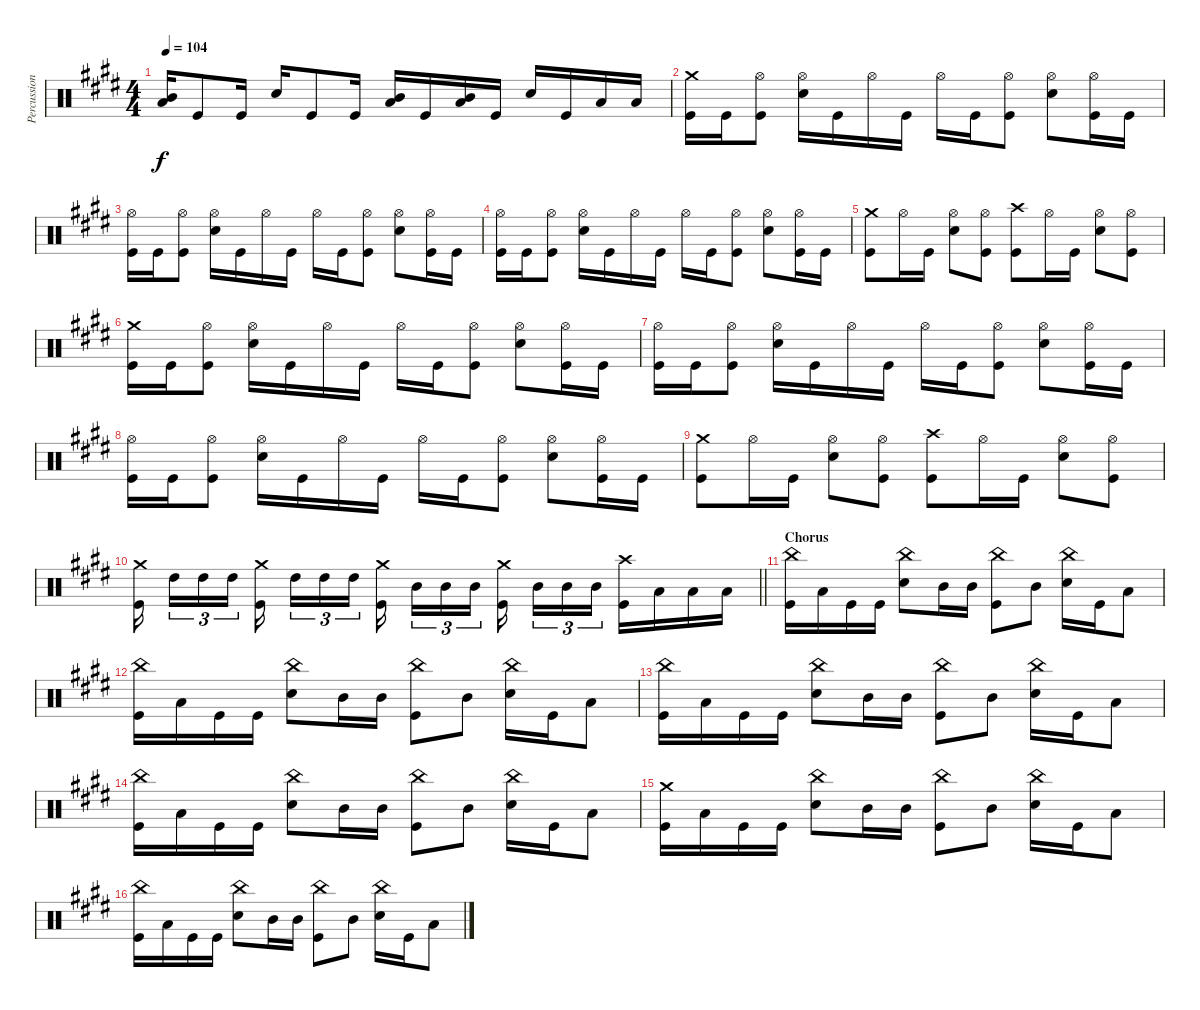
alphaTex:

\track ("Percussion" "Percussion") {instrument percussion}
\staff {score}
\articulation defaults
\ts (4 4)
\tempo 104
\clef neutral
\ks e
("Mid Tom (hit)" "Low Tom (hit)").16{dy f} "Kick (hit)".8 "Kick (hit)".16 "Electric Snare (hit)".16 "Kick (hit)".8 "Kick (hit)".16 ("Mid Tom (hit)" "Low Tom (hit)").16 "Kick (hit)".16 ("Mid Tom (hit)" "Low Tom (hit)").16 "Kick (hit)".16 "Electric Snare (hit)".16 "Kick (hit)".16 "Low Tom (hit)".16 "Low Tom (hit)".16 |
("Crash medium (hit)" "Kick (hit)").16 "Kick (hit)".16 ("Hi-Hat (open)" "Kick (hit)").8 ("Hi-Hat (open)" "Electric Snare (hit)").16 "Kick (hit)".16 "Hi-Hat (open)".16 "Kick (hit)".16 "Hi-Hat (open)".16 "Kick (hit)".16 ("Hi-Hat (open)" "Kick (hit)").8 ("Hi-Hat (open)" "Electric Snare (hit)").8 ("Hi-Hat (open)" "Kick (hit)").16 "Kick (hit)".16 |
("Hi-Hat (open)" "Kick (hit)").16 "Kick (hit)".16 ("Hi-Hat (open)" "Kick (hit)").8 ("Hi-Hat (open)" "Electric Snare (hit)").16 "Kick (hit)".16 "Hi-Hat (open)".16 "Kick (hit)".16 "Hi-Hat (open)".16 "Kick (hit)".16 ("Hi-Hat (open)" "Kick (hit)").8 ("Hi-Hat (open)" "Electric Snare (hit)").8 ("Hi-Hat (open)" "Kick (hit)").16 "Kick (hit)".16 |
("Hi-Hat (open)" "Kick (hit)").16 "Kick (hit)".16 ("Hi-Hat (open)" "Kick (hit)").8 ("Hi-Hat (open)" "Electric Snare (hit)").16 "Kick (hit)".16 "Hi-Hat (open)".16 "Kick (hit)".16 "Hi-Hat (open)".16 "Kick (hit)".16 ("Hi-Hat (open)" "Kick (hit)").8 ("Hi-Hat (open)" "Electric Snare (hit)").8 ("Hi-Hat (open)" "Kick (hit)").16 "Kick (hit)".16 |
("Crash medium (hit)" "Kick (hit)").8 "Hi-Hat (open)".16 "Kick (hit)".16 ("Hi-Hat (open)" "Electric Snare (hit)").8 ("Hi-Hat (open)" "Kick (hit)").8 ("Crash high (hit)" "Kick (hit)").8 "Hi-Hat (open)".16 "Kick (hit)".16 ("Hi-Hat (open)" "Electric Snare (hit)").8 ("Hi-Hat (open)" "Kick (hit)").8 |
("Crash medium (hit)" "Kick (hit)").16 "Kick (hit)".16 ("Hi-Hat (open)" "Kick (hit)").8 ("Hi-Hat (open)" "Electric Snare (hit)").16 "Kick (hit)".16 "Hi-Hat (open)".16 "Kick (hit)".16 "Hi-Hat (open)".16 "Kick (hit)".16 ("Hi-Hat (open)" "Kick (hit)").8 ("Hi-Hat (open)" "Electric Snare (hit)").8 ("Hi-Hat (open)" "Kick (hit)").16 "Kick (hit)".16 |
("Hi-Hat (open)" "Kick (hit)").16 "Kick (hit)".16 ("Hi-Hat (open)" "Kick (hit)").8 ("Hi-Hat (open)" "Electric Snare (hit)").16 "Kick (hit)".16 "Hi-Hat (open)".16 "Kick (hit)".16 "Hi-Hat (open)".16 "Kick (hit)".16 ("Hi-Hat (open)" "Kick (hit)").8 ("Hi-Hat (open)" "Electric Snare (hit)").8 ("Hi-Hat (open)" "Kick (hit)").16 "Kick (hit)".16 |
("Hi-Hat (open)" "Kick (hit)").16 "Kick (hit)".16 ("Hi-Hat (open)" "Kick (hit)").8 ("Hi-Hat (open)" "Electric Snare (hit)").16 "Kick (hit)".16 "Hi-Hat (open)".16 "Kick (hit)".16 "Hi-Hat (open)".16 "Kick (hit)".16 ("Hi-Hat (open)" "Kick (hit)").8 ("Hi-Hat (open)" "Electric Snare (hit)").8 ("Hi-Hat (open)" "Kick (hit)").16 "Kick (hit)".16 |
("Crash medium (hit)" "Kick (hit)").8 "Hi-Hat (open)".16 "Kick (hit)".16 ("Hi-Hat (open)" "Electric Snare (hit)").8 ("Hi-Hat (open)" "Kick (hit)").8 ("Crash high (hit)" "Kick (hit)").8 "Hi-Hat (open)".16 "Kick (hit)".16 ("Hi-Hat (open)" "Electric Snare (hit)").8 ("Hi-Hat (open)" "Kick (hit)").8 |
\barLineRight lightlight
("Crash medium (hit)" "Kick (hit)").16{beam splitsecondary} "High Tom (hit)".16{tu (3 2)} "High Tom (hit)".16{tu (3 2)} "High Tom (hit)".16{tu (3 2) beam splitsecondary} ("Crash medium (hit)" "Kick (hit)").16 "High Tom (hit)".16{tu (3 2)} "High Tom (hit)".16{tu (3 2)} "High Tom (hit)".16{tu (3 2) beam splitsecondary} ("Crash medium (hit)" "Kick (hit)").16{beam splitsecondary} "Mid Tom (hit)".16{tu (3 2)} "Mid Tom (hit)".16{tu (3 2)} "Mid Tom (hit)".16{tu (3 2) beam splitsecondary} ("Crash medium (hit)" "Kick (hit)").16{beam splitsecondary} "Mid Tom (hit)".16{tu (3 2)} "Mid Tom (hit)".16{tu (3 2)} "Mid Tom (hit)".16{tu (3 2)} ("Crash high (hit)" "Kick (hit)").16 "Low Tom (hit)".16 "Low Tom (hit)".16 "Low Tom (hit)".16 |
\section ("" "Chorus")
("China (hit)" "Kick (hit)").16 "Low Tom (hit)".16 "Kick (hit)".16 "Kick (hit)".16 ("China (hit)" "Electric Snare (hit)").8 "Mid Tom (hit)".16 "Mid Tom (hit)".16 ("China (hit)" "Kick (hit)").8 "Mid Tom (hit)".8 ("China (hit)" "Electric Snare (hit)").16 "Kick (hit)".16 "Low Tom (hit)".8 |
("China (hit)" "Kick (hit)").16 "Low Tom (hit)".16 "Kick (hit)".16 "Kick (hit)".16 ("China (hit)" "Electric Snare (hit)").8 "Mid Tom (hit)".16 "Mid Tom (hit)".16 ("China (hit)" "Kick (hit)").8 "Mid Tom (hit)".8 ("China (hit)" "Electric Snare (hit)").16 "Kick (hit)".16 "Low Tom (hit)".8 |
("China (hit)" "Kick (hit)").16 "Low Tom (hit)".16 "Kick (hit)".16 "Kick (hit)".16 ("China (hit)" "Electric Snare (hit)").8 "Mid Tom (hit)".16 "Mid Tom (hit)".16 ("China (hit)" "Kick (hit)").8 "Mid Tom (hit)".8 ("China (hit)" "Electric Snare (hit)").16 "Kick (hit)".16 "Low Tom (hit)".8 |
("China (hit)" "Kick (hit)").16 "Low Tom (hit)".16 "Kick (hit)".16 "Kick (hit)".16 ("China (hit)" "Electric Snare (hit)").8 "Mid Tom (hit)".16 "Mid Tom (hit)".16 ("China (hit)" "Kick (hit)").8 "Mid Tom (hit)".8 ("China (hit)" "Electric Snare (hit)").16 "Kick (hit)".16 "Low Tom (hit)".8 |
("Crash medium (hit)" "Kick (hit)").16 "Low Tom (hit)".16 "Kick (hit)".16 "Kick (hit)".16 ("China (hit)" "Electric Snare (hit)").8 "Mid Tom (hit)".16 "Mid Tom (hit)".16 ("China (hit)" "Kick (hit)").8 "Mid Tom (hit)".8 ("China (hit)" "Electric Snare (hit)").16 "Kick (hit)".16 "Low Tom (hit)".8 |
("China (hit)" "Kick (hit)").16 "Low Tom (hit)".16 "Kick (hit)".16 "Kick (hit)".16 ("China (hit)" "Electric Snare (hit)").8 "Mid Tom (hit)".16 "Mid Tom (hit)".16 ("China (hit)" "Kick (hit)").8 "Mid Tom (hit)".8 ("China (hit)" "Electric Snare (hit)").16 "Kick (hit)".16 "Low Tom (hit)".8
